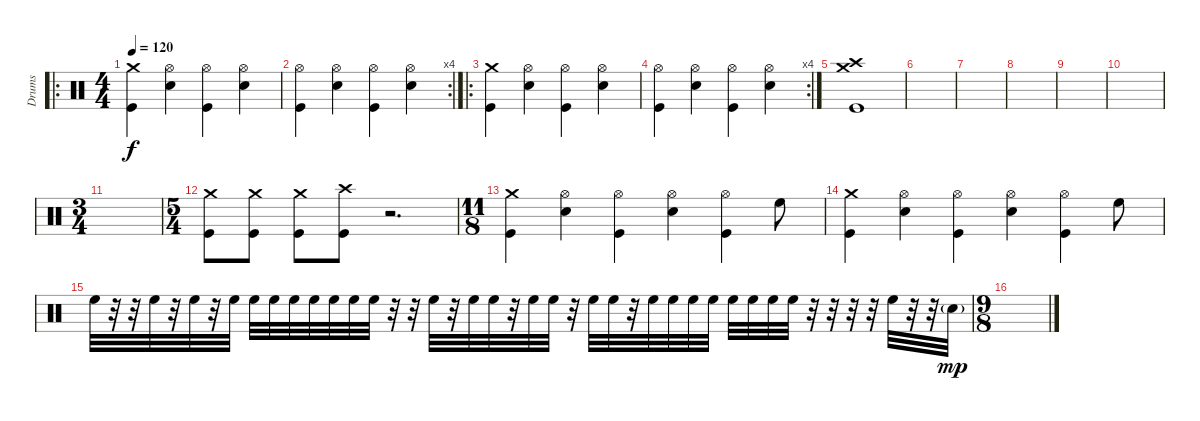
\track ("Drums" "Drums") {instrument percussion}
\staff {score}
\articulation defaults
\ro
\ts (4 4)
\tempo 120
\clef neutral
\ks c
("Crash medium (hit)" "Kick (hit)").4{dy f} ("Hi-Hat (open)" "Snare (hit) 2").4 ("Hi-Hat (open)" "Kick (hit)").4 ("Hi-Hat (open)" "Snare (hit) 2").4 |
\rc 4
("Hi-Hat (open)" "Kick (hit)").4 ("Hi-Hat (open)" "Snare (hit) 2").4 ("Hi-Hat (open)" "Kick (hit)").4 ("Hi-Hat (open)" "Snare (hit) 2").4 |
\ro
("Crash medium (hit)" "Kick (hit)").4 ("Hi-Hat (open)" "Snare (hit) 2").4 ("Hi-Hat (open)" "Kick (hit)").4 ("Hi-Hat (open)" "Snare (hit) 2").4 |
\rc 4
("Hi-Hat (open)" "Kick (hit)").4 ("Hi-Hat (open)" "Snare (hit) 2").4 ("Hi-Hat (open)" "Kick (hit)").4 ("Hi-Hat (open)" "Snare (hit) 2").4 |
("Crash medium (hit)" "Crash high (hit)" "Kick (hit)").1 |
|
|
|
|
|
\ts (3 4)
|
\ts (5 4)
("Crash medium (hit)" "Kick (hit)").8 ("Crash medium (hit)" "Kick (hit)").8 ("Crash medium (hit)" "Kick (hit)").8 ("Crash high (hit)" "Kick (hit)").8 r.2{d} |
\ts (11 8)
("Crash medium (hit)" "Kick (hit)").4 ("Hi-Hat (open)" "Snare (hit) 2").4 ("Hi-Hat (open)" "Kick (hit)").4 ("Hi-Hat (open)" "Snare (hit) 2").4 ("Hi-Hat (open)" "Kick (hit)").4 "High Floor Tom (hit)".8 |
("Crash medium (hit)" "Kick (hit)").4 ("Hi-Hat (open)" "Snare (hit) 2").4 ("Hi-Hat (open)" "Kick (hit)").4 ("Hi-Hat (open)" "Snare (hit) 2").4 ("Hi-Hat (open)" "Kick (hit)").4 "High Floor Tom (hit)".8 |
"High Floor Tom (hit)".32 r.32 r.32 "High Floor Tom (hit)".32 r.32 "High Floor Tom (hit)".32 r.32 "High Floor Tom (hit)".32 "High Floor Tom (hit)".32 "High Floor Tom (hit)".32 "High Floor Tom (hit)".32 "High Floor Tom (hit)".32 "High Floor Tom (hit)".32 "High Floor Tom (hit)".32 "High Floor Tom (hit)".32 r.32 r.32 "High Floor Tom (hit)".32 r.32 "High Floor Tom (hit)".32 "High Floor Tom (hit)".32 r.32 "High Floor Tom (hit)".32 "High Floor Tom (hit)".32 r.32 "High Floor Tom (hit)".32 "High Floor Tom (hit)".32 r.32 "High Floor Tom (hit)".32 "High Floor Tom (hit)".32 "High Floor Tom (hit)".32 "High Floor Tom (hit)".32 "High Floor Tom (hit)".32 "High Floor Tom (hit)".32 "High Floor Tom (hit)".32 "High Floor Tom (hit)".32 r.32 r.32 r.32 r.32 "High Floor Tom (hit)".32 r.32 r.32 "Snare (hit) 2"{g}.32{dy mp volume 4} |
\ts (9 8)
